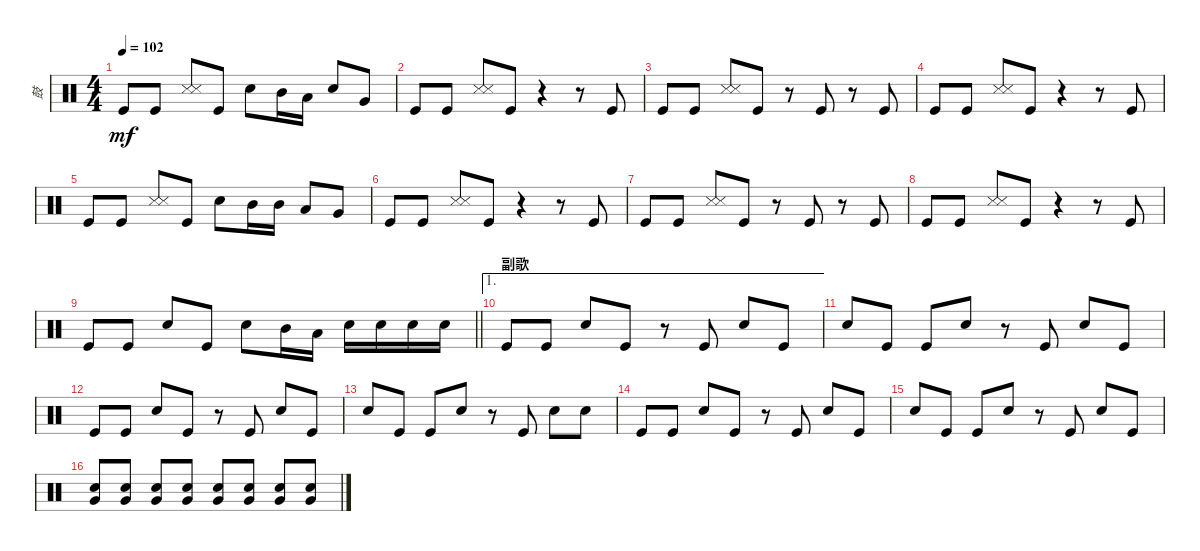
\track ("鼓" "鼓") {instrument percussion}
\staff {score}
\articulation defaults
\ts (4 4)
\tempo 102
\clef neutral
\ks c "Kick (hit)".8{dy mf} "Kick (hit)".8
("Snare (side stick) 3" "Snare (side stick) 3").8 "Kick (hit)".8 "Electric Snare (hit)".8 "Mid Tom (hit)".16 "Low Tom (hit)".16 "Electric Snare (hit)".8 "Very Low Tom (hit)".8 |
"Kick (hit)".8 "Kick (hit)".8 ("Snare (side stick) 3" "Snare (side stick) 3").8 "Kick (hit)".8 r.4 r.8 "Kick (hit)".8 |
"Kick (hit)".8 "Kick (hit)".8 ("Snare (side stick) 3" "Snare (side stick) 3").8 "Kick (hit)".8 r.8 "Kick (hit)".8 r.8 "Kick (hit)".8 |
"Kick (hit)".8 "Kick (hit)".8 ("Snare (side stick) 3" "Snare (side stick) 3").8 "Kick (hit)".8 r.4 r.8 "Kick (hit)".8 |
"Kick (hit)".8 "Kick (hit)".8 ("Snare (side stick) 3" "Snare (side stick) 3").8 "Kick (hit)".8 "Electric Snare (hit)".8 "Mid Tom (hit)".16 "Mid Tom (hit)".16 "Low Tom (hit)".8 "Very Low Tom (hit)".8 |
"Kick (hit)".8 "Kick (hit)".8 ("Snare (side stick) 3" "Snare (side stick) 3").8 "Kick (hit)".8 r.4 r.8 "Kick (hit)".8 |
"Kick (hit)".8 "Kick (hit)".8 ("Snare (side stick) 3" "Snare (side stick) 3").8 "Kick (hit)".8 r.8 "Kick (hit)".8 r.8 "Kick (hit)".8 |
"Kick (hit)".8 "Kick (hit)".8 ("Snare (side stick) 3" "Snare (side stick) 3").8 "Kick (hit)".8 r.4 r.8 "Kick (hit)".8 |
\barLineRight lightlight "Kick (hit)".8 "Kick (hit)".8 "Electric Snare (hit)".8 "Kick (hit)".8 "Electric Snare (hit)".8 "Mid Tom (hit)".16 "Low Tom (hit)".16 "Electric Snare (hit)".16 "Electric Snare (hit)".16 "Electric Snare (hit)".16 "Electric Snare (hit)".16
|
\ae 1
\section ("" "副歌")
"Kick (hit)".8 "Kick (hit)".8 "Electric Snare (hit)".8 "Kick (hit)".8 r.8 "Kick (hit)".8 "Electric Snare (hit)".8 "Kick (hit)".8 |
"Electric Snare (hit)".8 "Kick (hit)".8 "Kick (hit)".8 "Electric Snare (hit)".8 r.8 "Kick (hit)".8 "Electric Snare (hit)".8 "Kick (hit)".8 |
"Kick (hit)".8 "Kick (hit)".8 "Electric Snare (hit)".8 "Kick (hit)".8 r.8 "Kick (hit)".8 "Electric Snare (hit)".8 "Kick (hit)".8 |
"Electric Snare (hit)".8 "Kick (hit)".8 "Kick (hit)".8 "Electric Snare (hit)".8 r.8 "Kick (hit)".8 "Electric Snare (hit)".8 "Electric Snare (hit)".8 |
"Kick (hit)".8 "Kick (hit)".8 "Electric Snare (hit)".8 "Kick (hit)".8 r.8 "Kick (hit)".8 "Electric Snare (hit)".8 "Kick (hit)".8 |
"Electric Snare (hit)".8 "Kick (hit)".8 "Kick (hit)".8 "Electric Snare (hit)".8 r.8 "Kick (hit)".8 "Electric Snare (hit)".8 "Kick (hit)".8 |
("Electric Snare (hit)" "Very Low Tom (hit)").8 ("Electric Snare (hit)" "Very Low Tom (hit)").8 ("Electric Snare (hit)" "Very Low Tom (hit)").8 ("Electric Snare (hit)" "Very Low Tom (hit)").8 ("Electric Snare (hit)" "Very Low Tom (hit)").8 ("Electric Snare (hit)" "Very Low Tom (hit)").8 ("Electric Snare (hit)" "Very Low Tom (hit)").8 ("Electric Snare (hit)" "Very Low Tom (hit)").8
